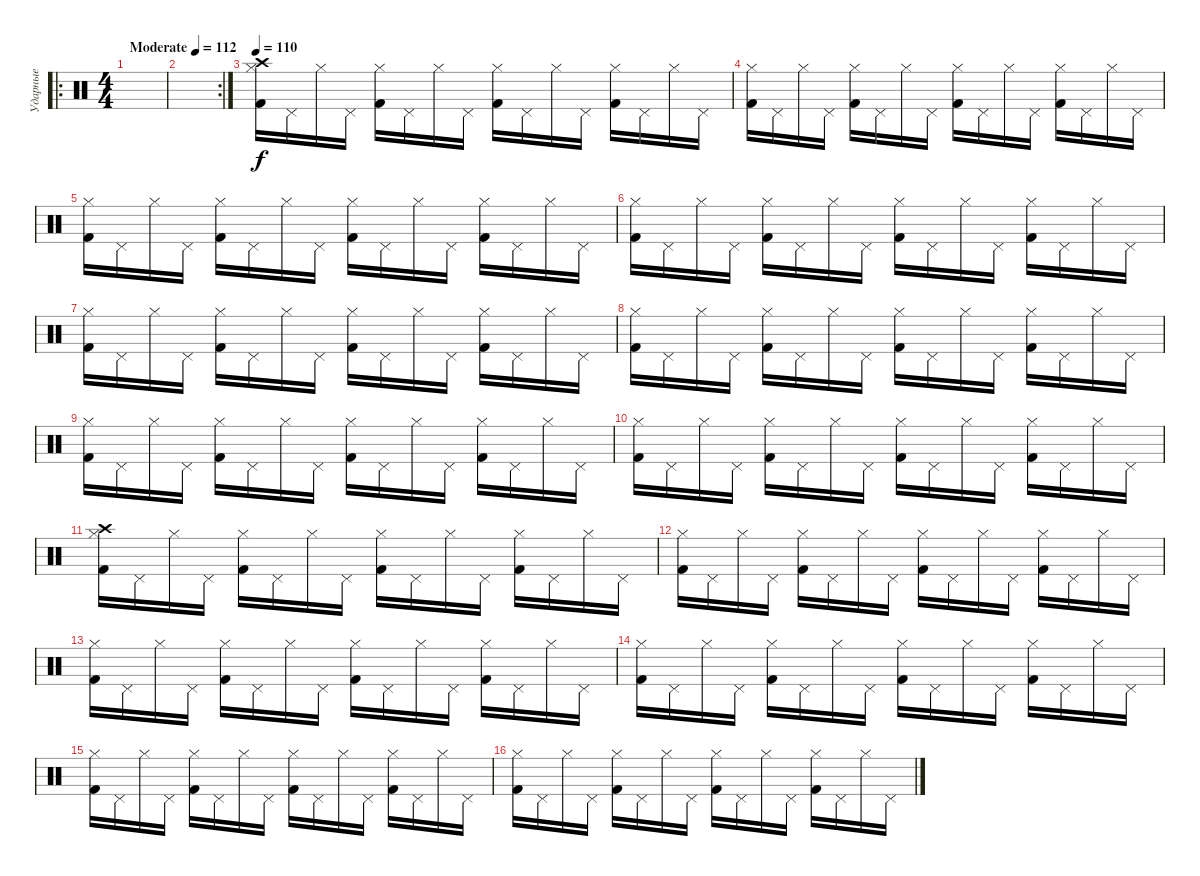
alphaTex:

\track ("Ударные" "Ударные") {instrument percussion}
\staff {score}
\articulation defaults
\ro
\ts (4 4)
\tempo (112 "Moderate")
\clef neutral
\ks c
|
\rc 2
|
\tempo 112
\tempo 110
("Crash high (hit)" "Hi-Hat (closed)" "Kick (hit) 2").16 "Pedal Hi-Hat (hit)".16 "Hi-Hat (closed)".16 "Pedal Hi-Hat (hit)".16 ("Hi-Hat (closed)" "Kick (hit) 2").16 "Pedal Hi-Hat (hit)".16 "Hi-Hat (closed)".16 "Pedal Hi-Hat (hit)".16 ("Hi-Hat (closed)" "Kick (hit) 2").16 "Pedal Hi-Hat (hit)".16 "Hi-Hat (closed)".16 "Pedal Hi-Hat (hit)".16 ("Hi-Hat (closed)" "Kick (hit) 2").16 "Pedal Hi-Hat (hit)".16 "Hi-Hat (closed)".16 "Pedal Hi-Hat (hit)".16 |
("Hi-Hat (closed)" "Kick (hit) 2").16 "Pedal Hi-Hat (hit)".16 "Hi-Hat (closed)".16 "Pedal Hi-Hat (hit)".16 ("Hi-Hat (closed)" "Kick (hit) 2").16 "Pedal Hi-Hat (hit)".16 "Hi-Hat (closed)".16 "Pedal Hi-Hat (hit)".16 ("Hi-Hat (closed)" "Kick (hit) 2").16 "Pedal Hi-Hat (hit)".16 "Hi-Hat (closed)".16 "Pedal Hi-Hat (hit)".16 ("Hi-Hat (closed)" "Kick (hit) 2").16 "Pedal Hi-Hat (hit)".16 "Hi-Hat (closed)".16 "Pedal Hi-Hat (hit)".16 |
("Hi-Hat (closed)" "Kick (hit) 2").16 "Pedal Hi-Hat (hit)".16 "Hi-Hat (closed)".16 "Pedal Hi-Hat (hit)".16 ("Hi-Hat (closed)" "Kick (hit) 2").16 "Pedal Hi-Hat (hit)".16 "Hi-Hat (closed)".16 "Pedal Hi-Hat (hit)".16 ("Hi-Hat (closed)" "Kick (hit) 2").16 "Pedal Hi-Hat (hit)".16 "Hi-Hat (closed)".16 "Pedal Hi-Hat (hit)".16 ("Hi-Hat (closed)" "Kick (hit) 2").16 "Pedal Hi-Hat (hit)".16 "Hi-Hat (closed)".16 "Pedal Hi-Hat (hit)".16 |
("Hi-Hat (closed)" "Kick (hit) 2").16 "Pedal Hi-Hat (hit)".16 "Hi-Hat (closed)".16 "Pedal Hi-Hat (hit)".16 ("Hi-Hat (closed)" "Kick (hit) 2").16 "Pedal Hi-Hat (hit)".16 "Hi-Hat (closed)".16 "Pedal Hi-Hat (hit)".16 ("Hi-Hat (closed)" "Kick (hit) 2").16 "Pedal Hi-Hat (hit)".16 "Hi-Hat (closed)".16 "Pedal Hi-Hat (hit)".16 ("Hi-Hat (closed)" "Kick (hit) 2").16 "Pedal Hi-Hat (hit)".16 "Hi-Hat (closed)".16 "Pedal Hi-Hat (hit)".16 |
("Hi-Hat (closed)" "Kick (hit) 2").16 "Pedal Hi-Hat (hit)".16 "Hi-Hat (closed)".16 "Pedal Hi-Hat (hit)".16 ("Hi-Hat (closed)" "Kick (hit) 2").16 "Pedal Hi-Hat (hit)".16 "Hi-Hat (closed)".16 "Pedal Hi-Hat (hit)".16 ("Hi-Hat (closed)" "Kick (hit) 2").16 "Pedal Hi-Hat (hit)".16 "Hi-Hat (closed)".16 "Pedal Hi-Hat (hit)".16 ("Hi-Hat (closed)" "Kick (hit) 2").16 "Pedal Hi-Hat (hit)".16 "Hi-Hat (closed)".16 "Pedal Hi-Hat (hit)".16 |
("Hi-Hat (closed)" "Kick (hit) 2").16 "Pedal Hi-Hat (hit)".16 "Hi-Hat (closed)".16 "Pedal Hi-Hat (hit)".16 ("Hi-Hat (closed)" "Kick (hit) 2").16 "Pedal Hi-Hat (hit)".16 "Hi-Hat (closed)".16 "Pedal Hi-Hat (hit)".16 ("Hi-Hat (closed)" "Kick (hit) 2").16 "Pedal Hi-Hat (hit)".16 "Hi-Hat (closed)".16 "Pedal Hi-Hat (hit)".16 ("Hi-Hat (closed)" "Kick (hit) 2").16 "Pedal Hi-Hat (hit)".16 "Hi-Hat (closed)".16 "Pedal Hi-Hat (hit)".16 |
("Hi-Hat (closed)" "Kick (hit) 2").16 "Pedal Hi-Hat (hit)".16 "Hi-Hat (closed)".16 "Pedal Hi-Hat (hit)".16 ("Hi-Hat (closed)" "Kick (hit) 2").16 "Pedal Hi-Hat (hit)".16 "Hi-Hat (closed)".16 "Pedal Hi-Hat (hit)".16 ("Hi-Hat (closed)" "Kick (hit) 2").16 "Pedal Hi-Hat (hit)".16 "Hi-Hat (closed)".16 "Pedal Hi-Hat (hit)".16 ("Hi-Hat (closed)" "Kick (hit) 2").16 "Pedal Hi-Hat (hit)".16 "Hi-Hat (closed)".16 "Pedal Hi-Hat (hit)".16 |
("Hi-Hat (closed)" "Kick (hit) 2").16 "Pedal Hi-Hat (hit)".16 "Hi-Hat (closed)".16 "Pedal Hi-Hat (hit)".16 ("Hi-Hat (closed)" "Kick (hit) 2").16 "Pedal Hi-Hat (hit)".16 "Hi-Hat (closed)".16 "Pedal Hi-Hat (hit)".16 ("Hi-Hat (closed)" "Kick (hit) 2").16 "Pedal Hi-Hat (hit)".16 "Hi-Hat (closed)".16 "Pedal Hi-Hat (hit)".16 ("Hi-Hat (closed)" "Kick (hit) 2").16 "Pedal Hi-Hat (hit)".16 "Hi-Hat (closed)".16 "Pedal Hi-Hat (hit)".16 |
("Crash high (hit)" "Hi-Hat (closed)" "Kick (hit) 2").16 "Pedal Hi-Hat (hit)".16 "Hi-Hat (closed)".16 "Pedal Hi-Hat (hit)".16 ("Hi-Hat (closed)" "Kick (hit) 2").16 "Pedal Hi-Hat (hit)".16 "Hi-Hat (closed)".16 "Pedal Hi-Hat (hit)".16 ("Hi-Hat (closed)" "Kick (hit) 2").16 "Pedal Hi-Hat (hit)".16 "Hi-Hat (closed)".16 "Pedal Hi-Hat (hit)".16 ("Hi-Hat (closed)" "Kick (hit) 2").16 "Pedal Hi-Hat (hit)".16 "Hi-Hat (closed)".16 "Pedal Hi-Hat (hit)".16 |
("Hi-Hat (closed)" "Kick (hit) 2").16 "Pedal Hi-Hat (hit)".16 "Hi-Hat (closed)".16 "Pedal Hi-Hat (hit)".16 ("Hi-Hat (closed)" "Kick (hit) 2").16 "Pedal Hi-Hat (hit)".16 "Hi-Hat (closed)".16 "Pedal Hi-Hat (hit)".16 ("Hi-Hat (closed)" "Kick (hit) 2").16 "Pedal Hi-Hat (hit)".16 "Hi-Hat (closed)".16 "Pedal Hi-Hat (hit)".16 ("Hi-Hat (closed)" "Kick (hit) 2").16 "Pedal Hi-Hat (hit)".16 "Hi-Hat (closed)".16 "Pedal Hi-Hat (hit)".16 |
("Hi-Hat (closed)" "Kick (hit) 2").16 "Pedal Hi-Hat (hit)".16 "Hi-Hat (closed)".16 "Pedal Hi-Hat (hit)".16 ("Hi-Hat (closed)" "Kick (hit) 2").16 "Pedal Hi-Hat (hit)".16 "Hi-Hat (closed)".16 "Pedal Hi-Hat (hit)".16 ("Hi-Hat (closed)" "Kick (hit) 2").16 "Pedal Hi-Hat (hit)".16 "Hi-Hat (closed)".16 "Pedal Hi-Hat (hit)".16 ("Hi-Hat (closed)" "Kick (hit) 2").16 "Pedal Hi-Hat (hit)".16 "Hi-Hat (closed)".16 "Pedal Hi-Hat (hit)".16 |
("Hi-Hat (closed)" "Kick (hit) 2").16 "Pedal Hi-Hat (hit)".16 "Hi-Hat (closed)".16 "Pedal Hi-Hat (hit)".16 ("Hi-Hat (closed)" "Kick (hit) 2").16 "Pedal Hi-Hat (hit)".16 "Hi-Hat (closed)".16 "Pedal Hi-Hat (hit)".16 ("Hi-Hat (closed)" "Kick (hit) 2").16 "Pedal Hi-Hat (hit)".16 "Hi-Hat (closed)".16 "Pedal Hi-Hat (hit)".16 ("Hi-Hat (closed)" "Kick (hit) 2").16 "Pedal Hi-Hat (hit)".16 "Hi-Hat (closed)".16 "Pedal Hi-Hat (hit)".16 |
("Hi-Hat (closed)" "Kick (hit) 2").16 "Pedal Hi-Hat (hit)".16 "Hi-Hat (closed)".16 "Pedal Hi-Hat (hit)".16 ("Hi-Hat (closed)" "Kick (hit) 2").16 "Pedal Hi-Hat (hit)".16 "Hi-Hat (closed)".16 "Pedal Hi-Hat (hit)".16 ("Hi-Hat (closed)" "Kick (hit) 2").16 "Pedal Hi-Hat (hit)".16 "Hi-Hat (closed)".16 "Pedal Hi-Hat (hit)".16 ("Hi-Hat (closed)" "Kick (hit) 2").16 "Pedal Hi-Hat (hit)".16 "Hi-Hat (closed)".16 "Pedal Hi-Hat (hit)".16 |
("Hi-Hat (closed)" "Kick (hit) 2").16 "Pedal Hi-Hat (hit)".16 "Hi-Hat (closed)".16 "Pedal Hi-Hat (hit)".16 ("Hi-Hat (closed)" "Kick (hit) 2").16 "Pedal Hi-Hat (hit)".16 "Hi-Hat (closed)".16 "Pedal Hi-Hat (hit)".16 ("Hi-Hat (closed)" "Kick (hit) 2").16 "Pedal Hi-Hat (hit)".16 "Hi-Hat (closed)".16 "Pedal Hi-Hat (hit)".16 ("Hi-Hat (closed)" "Kick (hit) 2").16 "Pedal Hi-Hat (hit)".16 "Hi-Hat (closed)".16 "Pedal Hi-Hat (hit)".16
